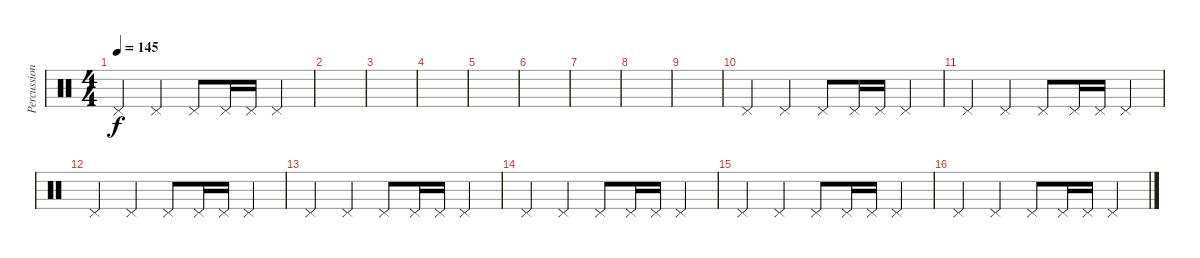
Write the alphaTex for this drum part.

\track ("Percussion" "Percussion") {instrument percussion}
\staff {score}
\articulation defaults
\ts (4 4)
\tempo 145
\clef neutral
\ks c "Pedal Hi-Hat (hit)".4{dy f} "Pedal Hi-Hat (hit)".4 "Pedal Hi-Hat (hit)".8 "Pedal Hi-Hat (hit)".16 "Pedal Hi-Hat (hit)".16 "Pedal Hi-Hat (hit)".4
|
|
|
|
|
|
|
|
|
"Pedal Hi-Hat (hit)".4 "Pedal Hi-Hat (hit)".4 "Pedal Hi-Hat (hit)".8 "Pedal Hi-Hat (hit)".16 "Pedal Hi-Hat (hit)".16 "Pedal Hi-Hat (hit)".4 |
"Pedal Hi-Hat (hit)".4 "Pedal Hi-Hat (hit)".4 "Pedal Hi-Hat (hit)".8 "Pedal Hi-Hat (hit)".16 "Pedal Hi-Hat (hit)".16 "Pedal Hi-Hat (hit)".4 |
"Pedal Hi-Hat (hit)".4 "Pedal Hi-Hat (hit)".4 "Pedal Hi-Hat (hit)".8 "Pedal Hi-Hat (hit)".16 "Pedal Hi-Hat (hit)".16 "Pedal Hi-Hat (hit)".4 |
"Pedal Hi-Hat (hit)".4 "Pedal Hi-Hat (hit)".4 "Pedal Hi-Hat (hit)".8 "Pedal Hi-Hat (hit)".16 "Pedal Hi-Hat (hit)".16 "Pedal Hi-Hat (hit)".4 |
"Pedal Hi-Hat (hit)".4 "Pedal Hi-Hat (hit)".4 "Pedal Hi-Hat (hit)".8 "Pedal Hi-Hat (hit)".16 "Pedal Hi-Hat (hit)".16 "Pedal Hi-Hat (hit)".4 |
"Pedal Hi-Hat (hit)".4 "Pedal Hi-Hat (hit)".4 "Pedal Hi-Hat (hit)".8 "Pedal Hi-Hat (hit)".16 "Pedal Hi-Hat (hit)".16 "Pedal Hi-Hat (hit)".4 |
"Pedal Hi-Hat (hit)".4 "Pedal Hi-Hat (hit)".4 "Pedal Hi-Hat (hit)".8 "Pedal Hi-Hat (hit)".16 "Pedal Hi-Hat (hit)".16 "Pedal Hi-Hat (hit)".4
